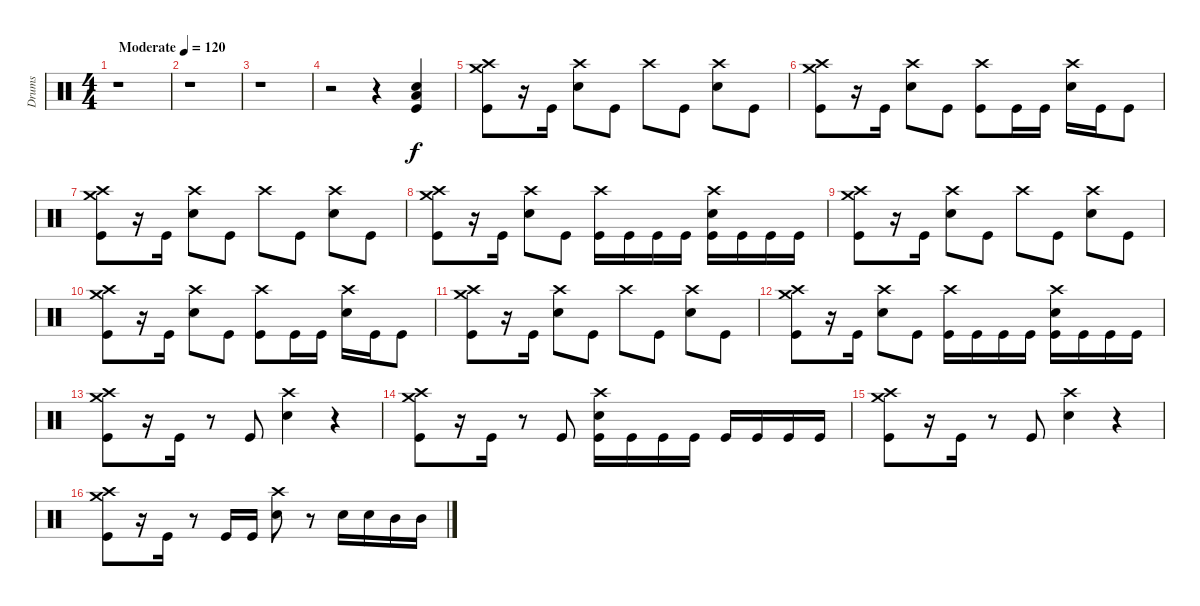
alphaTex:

\track ("Drums" "Drums") {instrument percussion}
\staff {score}
\articulation defaults
\ts (4 4)
\tempo (120 "Moderate")
\clef neutral
\ks c
r.1{dy f} |
r.1 |
r.1 |
r.2 r.4 ("Snare (hit) 2" "Low Floor Tom (hit)" "Kick (hit)").4 |
("Crash high (hit)" "Crash medium (hit)" "Kick (hit)").8 r.16 "Kick (hit)".16 ("Crash high (hit)" "Snare (hit) 2").8 "Kick (hit)".8 "Crash high (hit)".8 "Kick (hit)".8 ("Crash high (hit)" "Snare (hit) 2").8 "Kick (hit)".8 |
("Crash high (hit)" "Crash medium (hit)" "Kick (hit)").8 r.16 "Kick (hit)".16 ("Crash high (hit)" "Snare (hit) 2").8 "Kick (hit)".8 ("Crash high (hit)" "Kick (hit)").8 "Kick (hit)".16 "Kick (hit)".16 ("Crash high (hit)" "Snare (hit) 2").16 "Kick (hit)".16 "Kick (hit)".8 |
("Crash high (hit)" "Crash medium (hit)" "Kick (hit)").8 r.16 "Kick (hit)".16 ("Crash high (hit)" "Snare (hit) 2").8 "Kick (hit)".8 "Crash high (hit)".8 "Kick (hit)".8 ("Crash high (hit)" "Snare (hit) 2").8 "Kick (hit)".8 |
("Crash high (hit)" "Crash medium (hit)" "Kick (hit)").8 r.16 "Kick (hit)".16 ("Crash high (hit)" "Snare (hit) 2").8 "Kick (hit)".8 ("Crash high (hit)" "Kick (hit)").16 "Kick (hit)".16 "Kick (hit)".16 "Kick (hit)".16 ("Crash high (hit)" "Snare (hit) 2" "Kick (hit)").16 "Kick (hit)".16 "Kick (hit)".16 "Kick (hit)".16 |
("Crash high (hit)" "Crash medium (hit)" "Kick (hit)").8 r.16 "Kick (hit)".16 ("Crash high (hit)" "Snare (hit) 2").8 "Kick (hit)".8 "Crash high (hit)".8 "Kick (hit)".8 ("Crash high (hit)" "Snare (hit) 2").8 "Kick (hit)".8 |
("Crash high (hit)" "Crash medium (hit)" "Kick (hit)").8 r.16 "Kick (hit)".16 ("Crash high (hit)" "Snare (hit) 2").8 "Kick (hit)".8 ("Crash high (hit)" "Kick (hit)").8 "Kick (hit)".16 "Kick (hit)".16 ("Crash high (hit)" "Snare (hit) 2").16 "Kick (hit)".16 "Kick (hit)".8 |
("Crash high (hit)" "Crash medium (hit)" "Kick (hit)").8 r.16 "Kick (hit)".16 ("Crash high (hit)" "Snare (hit) 2").8 "Kick (hit)".8 "Crash high (hit)".8 "Kick (hit)".8 ("Crash high (hit)" "Snare (hit) 2").8 "Kick (hit)".8 |
("Crash high (hit)" "Crash medium (hit)" "Kick (hit)").8 r.16 "Kick (hit)".16 ("Crash high (hit)" "Snare (hit) 2").8 "Kick (hit)".8 ("Crash high (hit)" "Kick (hit)").16 "Kick (hit)".16 "Kick (hit)".16 "Kick (hit)".16 ("Crash high (hit)" "Snare (hit) 2" "Kick (hit)").16 "Kick (hit)".16 "Kick (hit)".16 "Kick (hit)".16 |
("Crash high (hit)" "Crash medium (hit)" "Kick (hit)").8 r.16 "Kick (hit)".16 r.8 "Kick (hit)".8 ("Crash high (hit)" "Snare (hit) 2").4 r.4 |
("Crash high (hit)" "Crash medium (hit)" "Kick (hit)").8 r.16 "Kick (hit)".16 r.8 "Kick (hit)".8 ("Crash high (hit)" "Snare (hit) 2" "Kick (hit)").16 "Kick (hit)".16 "Kick (hit)".16 "Kick (hit)".16 "Kick (hit)".16 "Kick (hit)".16 "Kick (hit)".16 "Kick (hit)".16 |
("Crash high (hit)" "Crash medium (hit)" "Kick (hit)").8 r.16 "Kick (hit)".16 r.8 "Kick (hit)".8 ("Crash high (hit)" "Snare (hit) 2").4 r.4 |
("Crash high (hit)" "Crash medium (hit)" "Kick (hit)").8 r.16 "Kick (hit)".16 r.8 "Kick (hit)".16 "Kick (hit)".16 ("Crash high (hit)" "Snare (hit) 2").8 r.8 "Snare (hit) 2".16 "Snare (hit) 2".16 "Mid Tom (hit)".16 "Mid Tom (hit)".16
